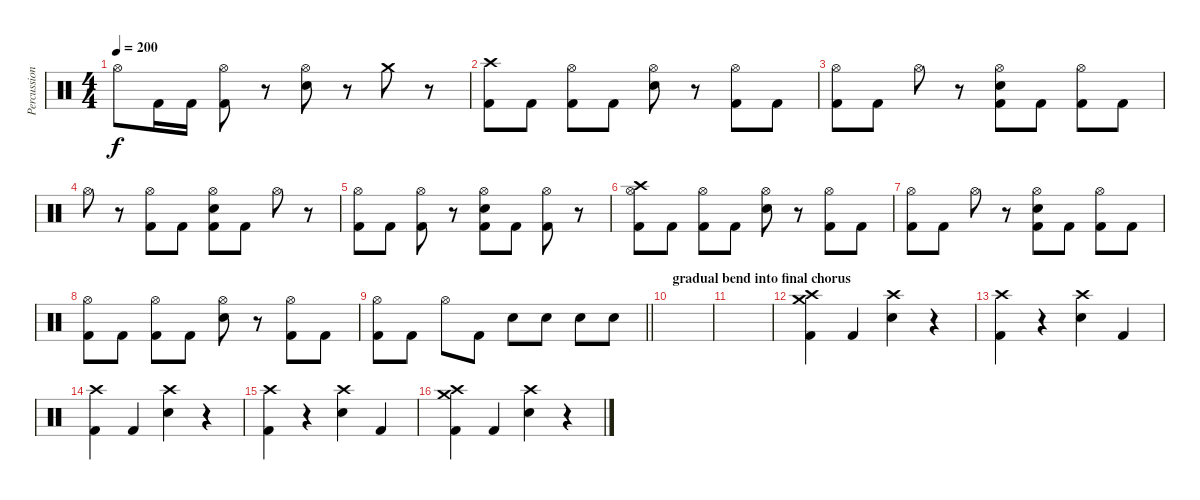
\track ("Percussion" "Percussion") {instrument percussion}
\staff {score}
\articulation defaults
\ts (4 4)
\tempo 200
\clef neutral
\ks c "Hi-Hat (open)".8{dy f} "Kick (hit) 2".16 "Kick (hit) 2".16
("Hi-Hat (open)" "Kick (hit) 2").8 r.8 ("Hi-Hat (open)" "Electric Snare (hit)").8 r.8 "Crash medium (hit)".8 r.8 |
("Crash high (hit)" "Kick (hit) 2").8 "Kick (hit) 2".8 ("Hi-Hat (open)" "Kick (hit) 2").8 "Kick (hit) 2".8 ("Hi-Hat (open)" "Electric Snare (hit)").8 r.8 ("Hi-Hat (open)" "Kick (hit) 2").8 "Kick (hit) 2".8 |
("Hi-Hat (open)" "Kick (hit) 2").8 "Kick (hit) 2".8 "Hi-Hat (open)".8 r.8 ("Hi-Hat (open)" "Electric Snare (hit)" "Kick (hit) 2").8 "Kick (hit) 2".8 ("Hi-Hat (open)" "Kick (hit) 2").8 "Kick (hit) 2".8 |
"Hi-Hat (open)".8 r.8 ("Hi-Hat (open)" "Kick (hit) 2").8 "Kick (hit) 2".8 ("Hi-Hat (open)" "Electric Snare (hit)" "Kick (hit) 2").8 "Kick (hit) 2".8 "Hi-Hat (open)".8 r.8 |
("Hi-Hat (open)" "Kick (hit) 2").8 "Kick (hit) 2".8 ("Hi-Hat (open)" "Kick (hit) 2").8 r.8 ("Hi-Hat (open)" "Electric Snare (hit)" "Kick (hit) 2").8 "Kick (hit) 2".8 ("Hi-Hat (open)" "Kick (hit) 2").8 r.8 |
("Crash high (hit)" "Hi-Hat (open)" "Kick (hit) 2").8 "Kick (hit) 2".8 ("Hi-Hat (open)" "Kick (hit) 2").8 "Kick (hit) 2".8 ("Hi-Hat (open)" "Electric Snare (hit)").8 r.8 ("Hi-Hat (open)" "Kick (hit) 2").8 "Kick (hit) 2".8 |
("Hi-Hat (open)" "Kick (hit) 2").8 "Kick (hit) 2".8 "Hi-Hat (open)".8 r.8 ("Hi-Hat (open)" "Electric Snare (hit)" "Kick (hit) 2").8 "Kick (hit) 2".8 ("Hi-Hat (open)" "Kick (hit) 2").8 "Kick (hit) 2".8 |
("Hi-Hat (open)" "Kick (hit) 2").8 "Kick (hit) 2".8 ("Hi-Hat (open)" "Kick (hit) 2").8 "Kick (hit) 2".8 ("Hi-Hat (open)" "Electric Snare (hit)").8 r.8 ("Hi-Hat (open)" "Kick (hit) 2").8 "Kick (hit) 2".8 |
\barLineRight lightlight
("Hi-Hat (open)" "Kick (hit) 2").8 "Kick (hit) 2".8 "Hi-Hat (open)".8 "Kick (hit) 2".8 "Electric Snare (hit)".8 "Electric Snare (hit)".8 "Electric Snare (hit)".8 "Electric Snare (hit)".8 |
\section ("" "gradual bend into final chorus")
|
|
("Crash high (hit)" "Crash medium (hit)" "Kick (hit) 2").4 "Kick (hit) 2".4 ("Crash high (hit)" "Electric Snare (hit)").4 r.4 |
("Crash high (hit)" "Kick (hit) 2").4 r.4 ("Crash high (hit)" "Electric Snare (hit)").4 "Kick (hit) 2".4 |
("Crash high (hit)" "Kick (hit) 2").4 "Kick (hit) 2".4 ("Crash high (hit)" "Electric Snare (hit)").4 r.4 |
("Crash high (hit)" "Kick (hit) 2").4 r.4 ("Crash high (hit)" "Electric Snare (hit)").4 "Kick (hit) 2".4 |
("Crash high (hit)" "Crash medium (hit)" "Kick (hit) 2").4 "Kick (hit) 2".4 ("Crash high (hit)" "Electric Snare (hit)").4 r.4
